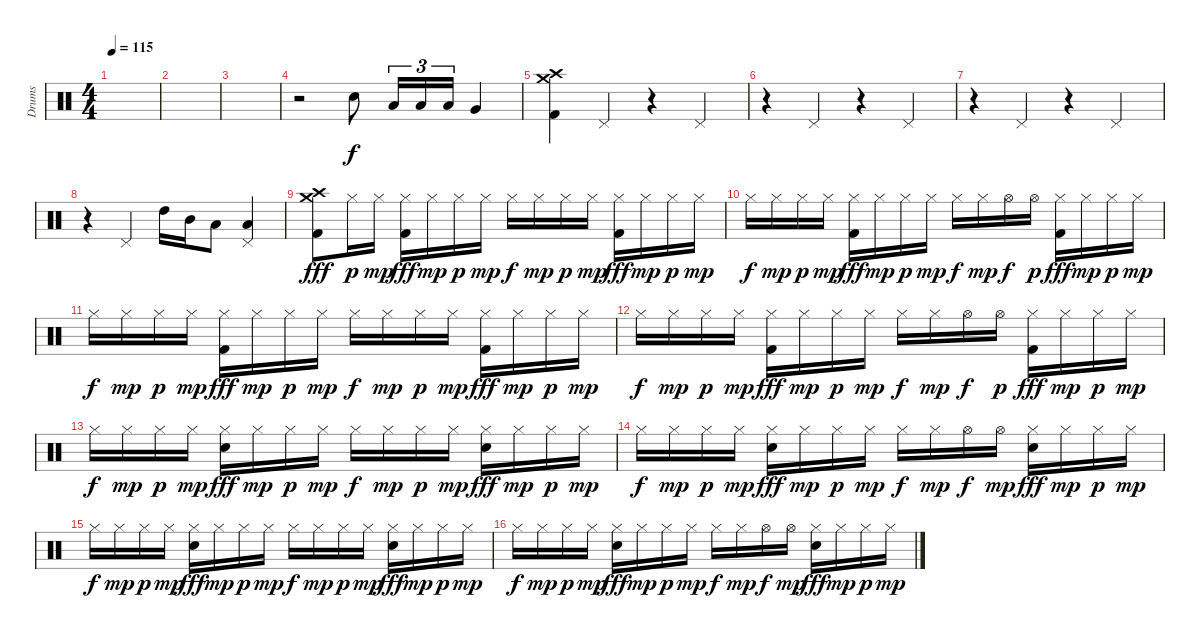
\track ("Drums" "Drums") {instrument percussion}
\staff {score}
\articulation defaults
\ts (4 4)
\tempo 115
\clef neutral
\ks c
|
|
|
r.2 "Electric Snare (hit)".8 "Low Tom (hit)".16{tu (3 2)} "Low Tom (hit)".16{tu (3 2)} "Low Tom (hit)".16{tu (3 2)} "Very Low Tom (hit)".4 |
("Crash high (hit)" "Crash medium (hit)" "Kick (hit) 2").4 "Pedal Hi-Hat (hit)".4 r.4 "Pedal Hi-Hat (hit)".4 |
r.4 "Pedal Hi-Hat (hit)".4 r.4 "Pedal Hi-Hat (hit)".4 |
r.4 "Pedal Hi-Hat (hit)".4 r.4 "Pedal Hi-Hat (hit)".4 |
r.4 "Pedal Hi-Hat (hit)".4 "High Tom (hit)".16 "Mid Tom (hit)".16 "Low Tom (hit)".8 ("Low Tom (hit)" "Pedal Hi-Hat (hit)").4 |
("Crash high (hit)" "Crash medium (hit)" "Kick (hit) 2").8{dy fff} "Hi-Hat (closed)".16{dy p} "Hi-Hat (closed)".16{dy mp} ("Hi-Hat (closed)" "Kick (hit) 2").16{dy fff} "Hi-Hat (closed)".16{dy mp} "Hi-Hat (closed)".16{dy p} "Hi-Hat (closed)".16{dy mp} "Hi-Hat (closed)".16{dy f} "Hi-Hat (closed)".16{dy mp} "Hi-Hat (closed)".16{dy p} "Hi-Hat (closed)".16{dy mp} ("Hi-Hat (closed)" "Kick (hit) 2").16{dy fff} "Hi-Hat (closed)".16{dy mp} "Hi-Hat (closed)".16{dy p} "Hi-Hat (closed)".16{dy mp} |
"Hi-Hat (closed)".16{dy f} "Hi-Hat (closed)".16{dy mp} "Hi-Hat (closed)".16{dy p} "Hi-Hat (closed)".16{dy mp} ("Hi-Hat (closed)" "Kick (hit) 2").16{dy fff} "Hi-Hat (closed)".16{dy mp} "Hi-Hat (closed)".16{dy p} "Hi-Hat (closed)".16{dy mp} "Hi-Hat (closed)".16{dy f} "Hi-Hat (closed)".16{dy mp} "Hi-Hat (open)".16{dy f} "Hi-Hat (open)".16{dy p} ("Hi-Hat (closed)" "Kick (hit) 2").16{dy fff} "Hi-Hat (closed)".16{dy mp} "Hi-Hat (closed)".16{dy p} "Hi-Hat (closed)".16{dy mp} |
"Hi-Hat (closed)".16{dy f} "Hi-Hat (closed)".16{dy mp} "Hi-Hat (closed)".16{dy p} "Hi-Hat (closed)".16{dy mp} ("Hi-Hat (closed)" "Kick (hit) 2").16{dy fff} "Hi-Hat (closed)".16{dy mp} "Hi-Hat (closed)".16{dy p} "Hi-Hat (closed)".16{dy mp} "Hi-Hat (closed)".16{dy f} "Hi-Hat (closed)".16{dy mp} "Hi-Hat (closed)".16{dy p} "Hi-Hat (closed)".16{dy mp} ("Hi-Hat (closed)" "Kick (hit) 2").16{dy fff} "Hi-Hat (closed)".16{dy mp} "Hi-Hat (closed)".16{dy p} "Hi-Hat (closed)".16{dy mp} |
"Hi-Hat (closed)".16{dy f} "Hi-Hat (closed)".16{dy mp} "Hi-Hat (closed)".16{dy p} "Hi-Hat (closed)".16{dy mp} ("Hi-Hat (closed)" "Kick (hit) 2").16{dy fff} "Hi-Hat (closed)".16{dy mp} "Hi-Hat (closed)".16{dy p} "Hi-Hat (closed)".16{dy mp} "Hi-Hat (closed)".16{dy f} "Hi-Hat (closed)".16{dy mp} "Hi-Hat (open)".16{dy f} "Hi-Hat (open)".16{dy p} ("Hi-Hat (closed)" "Kick (hit) 2").16{dy fff} "Hi-Hat (closed)".16{dy mp} "Hi-Hat (closed)".16{dy p} "Hi-Hat (closed)".16{dy mp} |
"Hi-Hat (closed)".16{dy f} "Hi-Hat (closed)".16{dy mp} "Hi-Hat (closed)".16{dy p} "Hi-Hat (closed)".16{dy mp} ("Hi-Hat (closed)" "Electric Snare (hit)").16{dy fff} "Hi-Hat (closed)".16{dy mp} "Hi-Hat (closed)".16{dy p} "Hi-Hat (closed)".16{dy mp} "Hi-Hat (closed)".16{dy f} "Hi-Hat (closed)".16{dy mp} "Hi-Hat (closed)".16{dy p} "Hi-Hat (closed)".16{dy mp} ("Hi-Hat (closed)" "Electric Snare (hit)").16{dy fff} "Hi-Hat (closed)".16{dy mp} "Hi-Hat (closed)".16{dy p} "Hi-Hat (closed)".16{dy mp} |
"Hi-Hat (closed)".16{dy f} "Hi-Hat (closed)".16{dy mp} "Hi-Hat (closed)".16{dy p} "Hi-Hat (closed)".16{dy mp} ("Hi-Hat (closed)" "Electric Snare (hit)").16{dy fff} "Hi-Hat (closed)".16{dy mp} "Hi-Hat (closed)".16{dy p} "Hi-Hat (closed)".16{dy mp} "Hi-Hat (closed)".16{dy f} "Hi-Hat (closed)".16{dy mp} "Hi-Hat (open)".16{dy f} "Hi-Hat (open)".16{dy mp} ("Hi-Hat (closed)" "Electric Snare (hit)").16{dy fff} "Hi-Hat (closed)".16{dy mp} "Hi-Hat (closed)".16{dy p} "Hi-Hat (closed)".16{dy mp} |
"Hi-Hat (closed)".16{dy f} "Hi-Hat (closed)".16{dy mp} "Hi-Hat (closed)".16{dy p} "Hi-Hat (closed)".16{dy mp} ("Hi-Hat (closed)" "Electric Snare (hit)").16{dy fff} "Hi-Hat (closed)".16{dy mp} "Hi-Hat (closed)".16{dy p} "Hi-Hat (closed)".16{dy mp} "Hi-Hat (closed)".16{dy f} "Hi-Hat (closed)".16{dy mp} "Hi-Hat (closed)".16{dy p} "Hi-Hat (closed)".16{dy mp} ("Hi-Hat (closed)" "Electric Snare (hit)").16{dy fff} "Hi-Hat (closed)".16{dy mp} "Hi-Hat (closed)".16{dy p} "Hi-Hat (closed)".16{dy mp} |
"Hi-Hat (closed)".16{dy f} "Hi-Hat (closed)".16{dy mp} "Hi-Hat (closed)".16{dy p} "Hi-Hat (closed)".16{dy mp} ("Hi-Hat (closed)" "Electric Snare (hit)").16{dy fff} "Hi-Hat (closed)".16{dy mp} "Hi-Hat (closed)".16{dy p} "Hi-Hat (closed)".16{dy mp} "Hi-Hat (closed)".16{dy f} "Hi-Hat (closed)".16{dy mp} "Hi-Hat (open)".16{dy f} "Hi-Hat (open)".16{dy mp} ("Hi-Hat (closed)" "Electric Snare (hit)").16{dy fff} "Hi-Hat (closed)".16{dy mp} "Hi-Hat (closed)".16{dy p} "Hi-Hat (closed)".16{dy mp}
